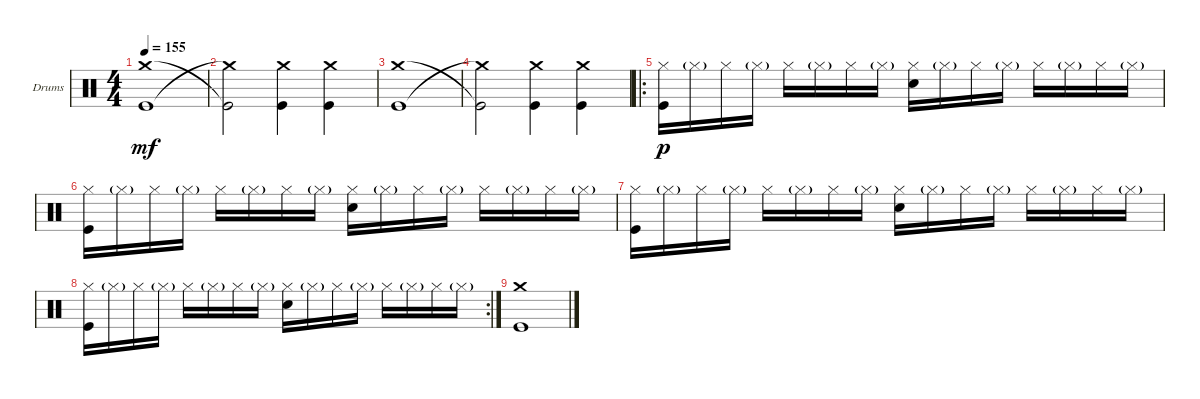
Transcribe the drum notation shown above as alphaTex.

\defaultSystemsLayout 4
\bracketExtendMode groupsimilarinstruments
\firstSystemTrackNameOrientation horizontal
\otherSystemsTrackNameOrientation horizontal
\track ("Drumkit" "Drums") {instrument percussion}
\staff {score}
\articulation defaults
\ts (4 4)
\tempo 155
\clef neutral
\scale
0.333333
\ks c
("Crash medium (hit)" "Kick (hit)").1{dy mf} |
\scale
0.333333 ("Kick (hit)"{t} "Crash medium (hit)"{t}).2 ("Kick (hit)" "Crash medium (hit)").4 ("Crash medium (hit)" "Kick (hit)").4 |
\scale
0.333333 ("Crash medium (hit)" "Kick (hit)").1 |
\scale
0.311111 ("Kick (hit)"{t} "Crash medium (hit)"{t}).2 ("Kick (hit)" "Crash medium (hit)").4 ("Crash medium (hit)" "Kick (hit)").4 |
\ro
\scale
0.377778 ("Hi-Hat (closed)" "Kick (hit)").16{dy p} "Hi-Hat (closed)"{g}.16 "Hi-Hat (closed)".16 "Hi-Hat (closed)"{g}.16 "Hi-Hat (closed)".16 "Hi-Hat (closed)"{g}.16 "Hi-Hat (closed)".16 "Hi-Hat (closed)"{g}.16 ("Hi-Hat (closed)" "Snare (hit) 2").16 "Hi-Hat (closed)"{g}.16 "Hi-Hat (closed)".16 "Hi-Hat (closed)"{g}.16 "Hi-Hat (closed)".16 "Hi-Hat (closed)"{g}.16 "Hi-Hat (closed)".16 "Hi-Hat (closed)"{g}.16 |
\scale
0.311111 ("Hi-Hat (closed)" "Kick (hit)").16 "Hi-Hat (closed)"{g}.16 "Hi-Hat (closed)".16 "Hi-Hat (closed)"{g}.16 "Hi-Hat (closed)".16 "Hi-Hat (closed)"{g}.16 "Hi-Hat (closed)".16 "Hi-Hat (closed)"{g}.16 ("Hi-Hat (closed)" "Snare (hit) 2").16 "Hi-Hat (closed)"{g}.16 "Hi-Hat (closed)".16 "Hi-Hat (closed)"{g}.16 "Hi-Hat (closed)".16 "Hi-Hat (closed)"{g}.16 "Hi-Hat (closed)".16 "Hi-Hat (closed)"{g}.16 |
\scale
0.321839 ("Hi-Hat (closed)" "Kick (hit)").16 "Hi-Hat (closed)"{g}.16 "Hi-Hat (closed)".16 "Hi-Hat (closed)"{g}.16 "Hi-Hat (closed)".16 "Hi-Hat (closed)"{g}.16 "Hi-Hat (closed)".16 "Hi-Hat (closed)"{g}.16 ("Hi-Hat (closed)" "Snare (hit) 2").16 "Hi-Hat (closed)"{g}.16 "Hi-Hat (closed)".16 "Hi-Hat (closed)"{g}.16 "Hi-Hat (closed)".16 "Hi-Hat (closed)"{g}.16 "Hi-Hat (closed)".16 "Hi-Hat (closed)"{g}.16 |
\rc 2
\scale
0.356322 ("Hi-Hat (closed)" "Kick (hit)").16 "Hi-Hat (closed)"{g}.16 "Hi-Hat (closed)".16 "Hi-Hat (closed)"{g}.16 "Hi-Hat (closed)".16 "Hi-Hat (closed)"{g}.16 "Hi-Hat (closed)".16 "Hi-Hat (closed)"{g}.16 ("Hi-Hat (closed)" "Snare (hit) 2").16 "Hi-Hat (closed)"{g}.16 "Hi-Hat (closed)".16 "Hi-Hat (closed)"{g}.16 "Hi-Hat (closed)".16 "Hi-Hat (closed)"{g}.16 "Hi-Hat (closed)".16 "Hi-Hat (closed)"{g}.16 |
\scale
0.321839 ("Crash medium (hit)" "Kick (hit)").1 |
\scale
0.333333 |
\scale
0.333333 |
\scale
0.333333 |
\scale
0.333333 |
\scale
0.333333 |
\scale
0.333333 |
\scale
0.333333
